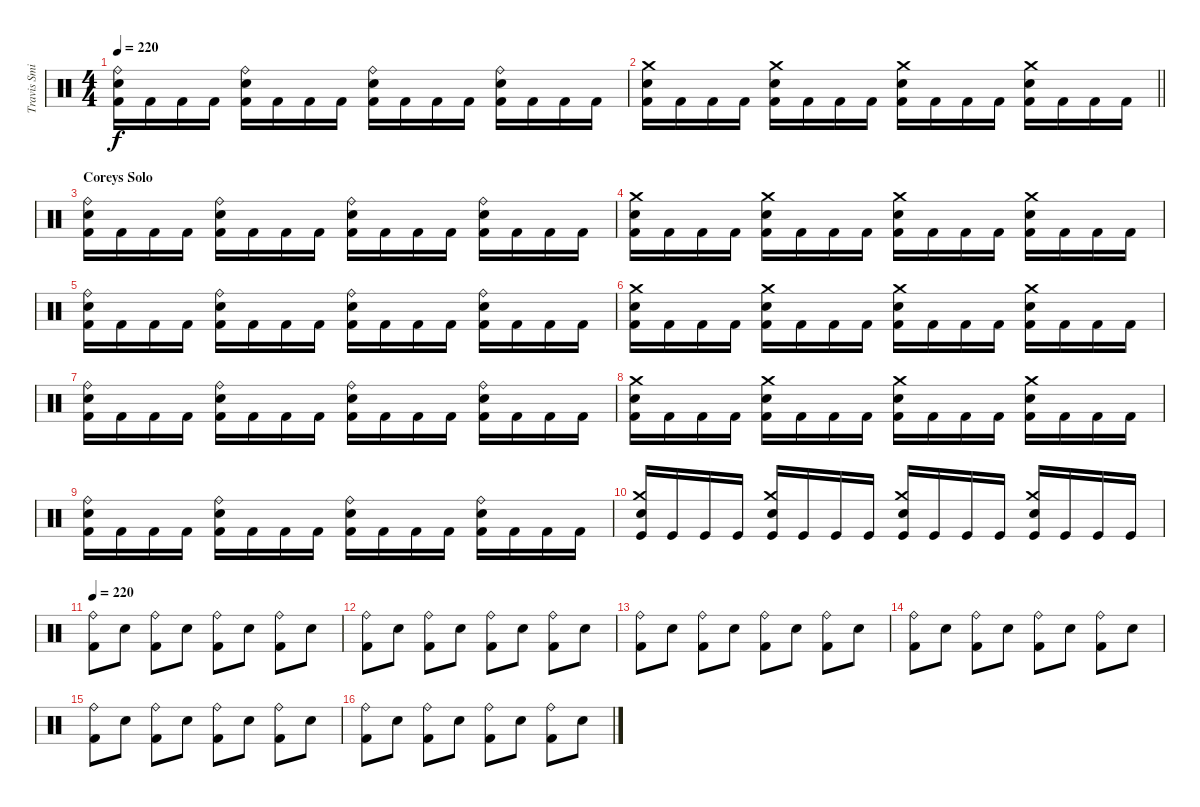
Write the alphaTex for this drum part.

\track ("Travis Smith" "Travis Smi") {instrument percussion}
\staff {score}
\articulation defaults
\ts (4 4)
\tempo 220
\clef neutral
\ks c
("Ride (bell)" "Electric Snare (hit)" "Kick (hit) 2").16{dy f} "Kick (hit) 2".16 "Kick (hit) 2".16 "Kick (hit) 2".16 ("Ride (bell)" "Electric Snare (hit)" "Kick (hit) 2").16 "Kick (hit) 2".16 "Kick (hit) 2".16 "Kick (hit) 2".16 ("Ride (bell)" "Electric Snare (hit)" "Kick (hit) 2").16 "Kick (hit) 2".16 "Kick (hit) 2".16 "Kick (hit) 2".16 ("Ride (bell)" "Electric Snare (hit)" "Kick (hit) 2").16 "Kick (hit) 2".16 "Kick (hit) 2".16 "Kick (hit) 2".16 |
\barLineRight lightlight
("Crash medium (hit)" "Electric Snare (hit)" "Kick (hit) 2").16 "Kick (hit) 2".16 "Kick (hit) 2".16 "Kick (hit) 2".16 ("Crash medium (hit)" "Electric Snare (hit)" "Kick (hit) 2").16 "Kick (hit) 2".16 "Kick (hit) 2".16 "Kick (hit) 2".16 ("Crash medium (hit)" "Electric Snare (hit)" "Kick (hit) 2").16 "Kick (hit) 2".16 "Kick (hit) 2".16 "Kick (hit) 2".16 ("Crash medium (hit)" "Electric Snare (hit)" "Kick (hit) 2").16 "Kick (hit) 2".16 "Kick (hit) 2".16 "Kick (hit) 2".16 |
\section ("" "Coreys Solo")
("Ride (bell)" "Electric Snare (hit)" "Kick (hit) 2").16 "Kick (hit) 2".16 "Kick (hit) 2".16 "Kick (hit) 2".16 ("Ride (bell)" "Electric Snare (hit)" "Kick (hit) 2").16 "Kick (hit) 2".16 "Kick (hit) 2".16 "Kick (hit) 2".16 ("Ride (bell)" "Electric Snare (hit)" "Kick (hit) 2").16 "Kick (hit) 2".16 "Kick (hit) 2".16 "Kick (hit) 2".16 ("Ride (bell)" "Electric Snare (hit)" "Kick (hit) 2").16 "Kick (hit) 2".16 "Kick (hit) 2".16 "Kick (hit) 2".16 |
("Crash medium (hit)" "Electric Snare (hit)" "Kick (hit) 2").16 "Kick (hit) 2".16 "Kick (hit) 2".16 "Kick (hit) 2".16 ("Crash medium (hit)" "Electric Snare (hit)" "Kick (hit) 2").16 "Kick (hit) 2".16 "Kick (hit) 2".16 "Kick (hit) 2".16 ("Crash medium (hit)" "Electric Snare (hit)" "Kick (hit) 2").16 "Kick (hit) 2".16 "Kick (hit) 2".16 "Kick (hit) 2".16 ("Crash medium (hit)" "Electric Snare (hit)" "Kick (hit) 2").16 "Kick (hit) 2".16 "Kick (hit) 2".16 "Kick (hit) 2".16 |
("Ride (bell)" "Electric Snare (hit)" "Kick (hit) 2").16 "Kick (hit) 2".16 "Kick (hit) 2".16 "Kick (hit) 2".16 ("Ride (bell)" "Electric Snare (hit)" "Kick (hit) 2").16 "Kick (hit) 2".16 "Kick (hit) 2".16 "Kick (hit) 2".16 ("Ride (bell)" "Electric Snare (hit)" "Kick (hit) 2").16 "Kick (hit) 2".16 "Kick (hit) 2".16 "Kick (hit) 2".16 ("Ride (bell)" "Electric Snare (hit)" "Kick (hit) 2").16 "Kick (hit) 2".16 "Kick (hit) 2".16 "Kick (hit) 2".16 |
("Crash medium (hit)" "Electric Snare (hit)" "Kick (hit) 2").16 "Kick (hit) 2".16 "Kick (hit) 2".16 "Kick (hit) 2".16 ("Crash medium (hit)" "Electric Snare (hit)" "Kick (hit) 2").16 "Kick (hit) 2".16 "Kick (hit) 2".16 "Kick (hit) 2".16 ("Crash medium (hit)" "Electric Snare (hit)" "Kick (hit) 2").16 "Kick (hit) 2".16 "Kick (hit) 2".16 "Kick (hit) 2".16 ("Crash medium (hit)" "Electric Snare (hit)" "Kick (hit) 2").16 "Kick (hit) 2".16 "Kick (hit) 2".16 "Kick (hit) 2".16 |
("Ride (bell)" "Electric Snare (hit)" "Kick (hit) 2").16 "Kick (hit) 2".16 "Kick (hit) 2".16 "Kick (hit) 2".16 ("Ride (bell)" "Electric Snare (hit)" "Kick (hit) 2").16 "Kick (hit) 2".16 "Kick (hit) 2".16 "Kick (hit) 2".16 ("Ride (bell)" "Electric Snare (hit)" "Kick (hit) 2").16 "Kick (hit) 2".16 "Kick (hit) 2".16 "Kick (hit) 2".16 ("Ride (bell)" "Electric Snare (hit)" "Kick (hit) 2").16 "Kick (hit) 2".16 "Kick (hit) 2".16 "Kick (hit) 2".16 |
("Crash medium (hit)" "Electric Snare (hit)" "Kick (hit) 2").16 "Kick (hit) 2".16 "Kick (hit) 2".16 "Kick (hit) 2".16 ("Crash medium (hit)" "Electric Snare (hit)" "Kick (hit) 2").16 "Kick (hit) 2".16 "Kick (hit) 2".16 "Kick (hit) 2".16 ("Crash medium (hit)" "Electric Snare (hit)" "Kick (hit) 2").16 "Kick (hit) 2".16 "Kick (hit) 2".16 "Kick (hit) 2".16 ("Crash medium (hit)" "Electric Snare (hit)" "Kick (hit) 2").16 "Kick (hit) 2".16 "Kick (hit) 2".16 "Kick (hit) 2".16 |
("Ride (bell)" "Electric Snare (hit)" "Kick (hit) 2").16 "Kick (hit) 2".16 "Kick (hit) 2".16 "Kick (hit) 2".16 ("Ride (bell)" "Electric Snare (hit)" "Kick (hit) 2").16 "Kick (hit) 2".16 "Kick (hit) 2".16 "Kick (hit) 2".16 ("Ride (bell)" "Electric Snare (hit)" "Kick (hit) 2").16 "Kick (hit) 2".16 "Kick (hit) 2".16 "Kick (hit) 2".16 ("Ride (bell)" "Electric Snare (hit)" "Kick (hit) 2").16 "Kick (hit) 2".16 "Kick (hit) 2".16 "Kick (hit) 2".16 |
("Crash medium (hit)" "Electric Snare (hit)" "Kick (hit)").16 "Kick (hit)".16 "Kick (hit)".16 "Kick (hit)".16 ("Crash medium (hit)" "Electric Snare (hit)" "Kick (hit)").16 "Kick (hit)".16 "Kick (hit)".16 "Kick (hit)".16 ("Crash medium (hit)" "Electric Snare (hit)" "Kick (hit)").16 "Kick (hit)".16 "Kick (hit)".16 "Kick (hit)".16 ("Crash medium (hit)" "Electric Snare (hit)" "Kick (hit)").16 "Kick (hit)".16 "Kick (hit)".16 "Kick (hit)".16 |
\tempo 220
("Ride (bell)" "Kick (hit) 2").8 "Electric Snare (hit)".8 ("Ride (bell)" "Kick (hit) 2").8 "Electric Snare (hit)".8 ("Ride (bell)" "Kick (hit) 2").8 "Electric Snare (hit)".8 ("Ride (bell)" "Kick (hit) 2").8 "Electric Snare (hit)".8 |
("Ride (bell)" "Kick (hit) 2").8 "Electric Snare (hit)".8 ("Ride (bell)" "Kick (hit) 2").8 "Electric Snare (hit)".8 ("Ride (bell)" "Kick (hit) 2").8 "Electric Snare (hit)".8 ("Ride (bell)" "Kick (hit) 2").8 "Electric Snare (hit)".8 |
("Ride (bell)" "Kick (hit) 2").8 "Electric Snare (hit)".8 ("Ride (bell)" "Kick (hit) 2").8 "Electric Snare (hit)".8 ("Ride (bell)" "Kick (hit) 2").8 "Electric Snare (hit)".8 ("Ride (bell)" "Kick (hit) 2").8 "Electric Snare (hit)".8 |
("Ride (bell)" "Kick (hit) 2").8 "Electric Snare (hit)".8 ("Ride (bell)" "Kick (hit) 2").8 "Electric Snare (hit)".8 ("Ride (bell)" "Kick (hit) 2").8 "Electric Snare (hit)".8 ("Ride (bell)" "Kick (hit) 2").8 "Electric Snare (hit)".8 |
("Ride (bell)" "Kick (hit) 2").8 "Electric Snare (hit)".8 ("Ride (bell)" "Kick (hit) 2").8 "Electric Snare (hit)".8 ("Ride (bell)" "Kick (hit) 2").8 "Electric Snare (hit)".8 ("Ride (bell)" "Kick (hit) 2").8 "Electric Snare (hit)".8 |
("Ride (bell)" "Kick (hit) 2").8 "Electric Snare (hit)".8 ("Ride (bell)" "Kick (hit) 2").8 "Electric Snare (hit)".8 ("Ride (bell)" "Kick (hit) 2").8 "Electric Snare (hit)".8 ("Ride (bell)" "Kick (hit) 2").8 "Electric Snare (hit)".8
